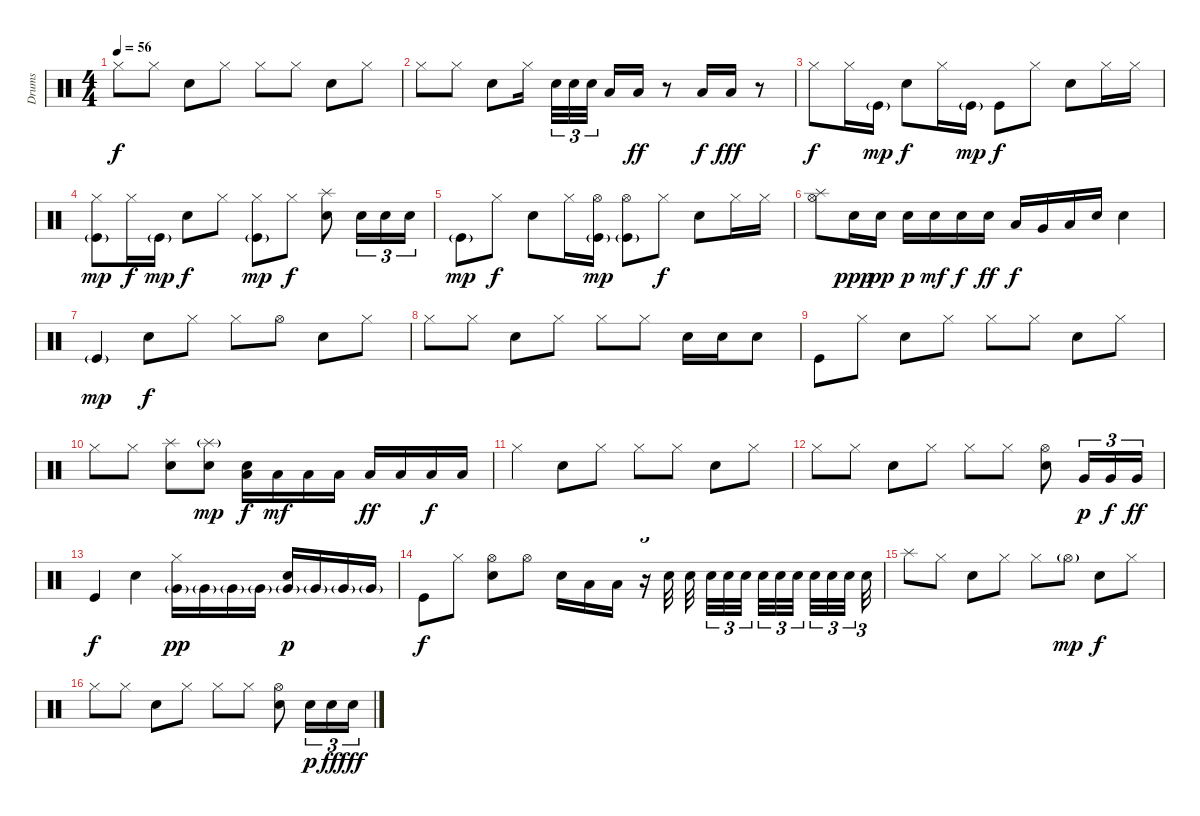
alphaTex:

\track ("Drums" "Drums") {instrument percussion}
\staff {score}
\articulation defaults
\ts (4 4)
\tempo 56
\clef neutral
\ks c "Hi-Hat (closed)".8{dy f} "Hi-Hat (closed)".8 "Electric Snare (hit)".8 "Hi-Hat (closed)".8 "Hi-Hat (closed)".8 "Hi-Hat (closed)".8 "Electric Snare (hit)".8 "Hi-Hat (closed)".8
|
"Hi-Hat (closed)".8 "Hi-Hat (closed)".8 "Electric Snare (hit)".8 "Hi-Hat (closed)".16 "Electric Snare (hit)".32{tu (3 2)} "Electric Snare (hit)".32{tu (3 2)} "Electric Snare (hit)".32{tu (3 2)} "Low Tom (hit)".16 "Low Tom (hit)".16{dy ff} r.8 "Low Tom (hit)".16{dy f} "Low Tom (hit)".16{dy fff} r.8 |
"Hi-Hat (closed)".8{dy f} "Hi-Hat (closed)".16 "Kick (hit)"{g}.16{dy mp} "Electric Snare (hit)".8{dy f} "Hi-Hat (closed)".16 "Kick (hit)"{g}.16{dy mp} "Kick (hit)".8{dy f} "Hi-Hat (closed)".8 "Electric Snare (hit)".8 "Hi-Hat (closed)".16 "Hi-Hat (closed)".16 |
("Hi-Hat (closed)" "Kick (hit)"{g}).8{dy mp} "Hi-Hat (closed)".16{dy f} "Kick (hit)"{g}.16{dy mp} "Electric Snare (hit)".8{dy f} "Hi-Hat (closed)".8 ("Hi-Hat (closed)" "Kick (hit)"{g}).8{dy mp} "Hi-Hat (closed)".8{dy f} ("Splash (hit)" "Electric Snare (hit)").8 "Electric Snare (hit)".16{tu (3 2)} "Electric Snare (hit)".16{tu (3 2)} "Electric Snare (hit)".16{tu (3 2)} |
"Kick (hit)"{g}.8{dy mp} "Hi-Hat (closed)".8{dy f} "Electric Snare (hit)".8 "Hi-Hat (closed)".16 ("Hi-Hat (open)" "Kick (hit)"{g}).16{dy mp} ("Hi-Hat (open)" "Kick (hit)"{g}).8 "Hi-Hat (closed)".8{dy f} "Electric Snare (hit)".8 "Hi-Hat (closed)".16 "Hi-Hat (closed)".16 |
("Splash (hit)" "Hi-Hat (open)").8 "Electric Snare (hit)".16{dy ppp} "Electric Snare (hit)".16{dy pp} "Electric Snare (hit)".16{dy p} "Electric Snare (hit)".16{dy mf} "Electric Snare (hit)".16{dy f} "Electric Snare (hit)".16{dy ff} "Low Tom (hit)".16{dy f} "Very Low Tom (hit)".16 "Low Tom (hit)".16 "Electric Snare (hit)".16 "Electric Snare (hit)".4 |
"Kick (hit)"{g}.4{dy mp} "Electric Snare (hit)".8{dy f} "Hi-Hat (closed)".8 "Hi-Hat (closed)".8 "Hi-Hat (open)".8 "Electric Snare (hit)".8 "Hi-Hat (closed)".8 |
"Hi-Hat (closed)".8 "Hi-Hat (closed)".8 "Electric Snare (hit)".8 "Hi-Hat (closed)".8 "Hi-Hat (closed)".8 "Hi-Hat (closed)".8 "Electric Snare (hit)".16 "Electric Snare (hit)".16 "Electric Snare (hit)".8 |
"Kick (hit)".8 "Hi-Hat (closed)".8 "Electric Snare (hit)".8 "Hi-Hat (closed)".8 "Hi-Hat (closed)".8 "Hi-Hat (closed)".8 "Electric Snare (hit)".8 "Hi-Hat (closed)".8 |
"Hi-Hat (closed)".8 "Hi-Hat (closed)".8 ("Splash (hit)" "Electric Snare (hit)").8 ("Splash (hit)"{g} "Electric Snare (hit)").8{dy mp} ("Low Tom (hit)" "Electric Snare (hit)").16{dy f} "Low Tom (hit)".16{dy mf} "Low Tom (hit)".16 "Low Tom (hit)".16 "Low Tom (hit)".16{dy ff} "Low Tom (hit)".16 "Low Tom (hit)".16{dy f} "Low Tom (hit)".16 |
"Hi-Hat (closed)".4 "Electric Snare (hit)".8 "Hi-Hat (closed)".8 "Hi-Hat (closed)".8 "Hi-Hat (closed)".8 "Electric Snare (hit)".8 "Hi-Hat (closed)".8 |
"Hi-Hat (closed)".8 "Hi-Hat (closed)".8 "Electric Snare (hit)".8 "Hi-Hat (closed)".8 "Hi-Hat (closed)".8 "Hi-Hat (closed)".8 ("Hi-Hat (open)" "Electric Snare (hit)").8 "Very Low Tom (hit)".16{tu (3 2) dy p} "Very Low Tom (hit)".16{tu (3 2) dy f} "Very Low Tom (hit)".16{tu (3 2) dy ff} |
"Kick (hit)".4{dy f} "Electric Snare (hit)".4 ("Very Low Tom (hit)"{g} "Hi-Hat (closed)").16{dy pp} "Very Low Tom (hit)"{g}.16 "Very Low Tom (hit)"{g}.16 "Very Low Tom (hit)"{g}.16 ("Very Low Tom (hit)"{g} "Electric Snare (hit)").16{dy p} "Very Low Tom (hit)"{g}.16 "Very Low Tom (hit)"{g}.16 "Very Low Tom (hit)"{g}.16 |
"Kick (hit)".8{dy f} "Hi-Hat (closed)".8 ("Hi-Hat (open)" "Electric Snare (hit)").8 "Hi-Hat (open)".8 "Electric Snare (hit)".16 "Low Tom (hit)".16 "Low Tom (hit)".16 r.16{tu (3 2) volume 0} "Electric Snare (hit)".32{volume 16} "Electric Snare (hit)".32 "Electric Snare (hit)".32{tu (3 2)} "Electric Snare (hit)".32{tu (3 2)} "Electric Snare (hit)".32{tu (3 2)} "Electric Snare (hit)".32{tu (3 2)} "Electric Snare (hit)".32{tu (3 2)} "Electric Snare (hit)".32{tu (3 2)} "Electric Snare (hit)".32{tu (3 2)} "Electric Snare (hit)".32{tu (3 2)} "Electric Snare (hit)".32{tu (3 2)} "Electric Snare (hit)".32{tu (3 2)} |
"Splash (hit)".8 "Hi-Hat (closed)".8 "Electric Snare (hit)".8 "Hi-Hat (closed)".8 "Hi-Hat (closed)".8 "Hi-Hat (open)"{g}.8{dy mp} "Electric Snare (hit)".8{dy f} "Hi-Hat (closed)".8 |
"Hi-Hat (closed)".8 "Hi-Hat (closed)".8 "Electric Snare (hit)".8 "Hi-Hat (closed)".8 "Hi-Hat (closed)".8 "Hi-Hat (closed)".8 ("Hi-Hat (open)" "Electric Snare (hit)").8 "Electric Snare (hit)".16{tu (3 2) dy p} "Electric Snare (hit)".16{tu (3 2) dy ff} "Electric Snare (hit)".16{tu (3 2) dy fff}
